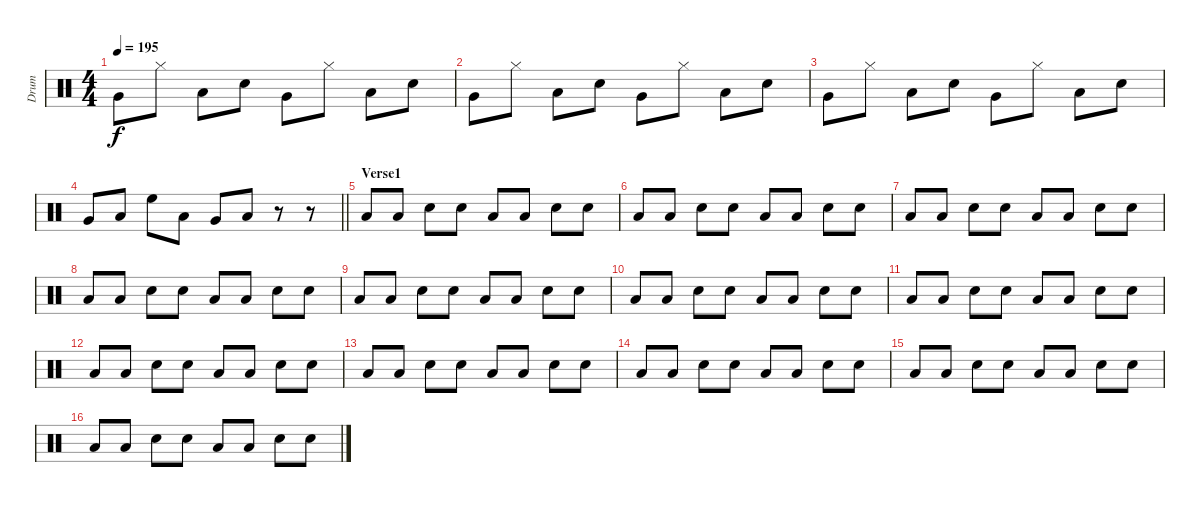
\track ("Drum" "Drum") {instrument percussion}
\staff {score}
\articulation defaults
\ts (4 4)
\tempo 195
\clef neutral
\ks c "Very Low Tom (hit)".8{dy f} "Hi-Hat (closed)".8 "Low Floor Tom (hit)".8 "Electric Snare (hit)".8 "Very Low Tom (hit)".8 "Hi-Hat (closed)".8 "Low Floor Tom (hit)".8 "Electric Snare (hit)".8
|
"Very Low Tom (hit)".8 "Hi-Hat (closed)".8 "Low Floor Tom (hit)".8 "Electric Snare (hit)".8 "Very Low Tom (hit)".8 "Hi-Hat (closed)".8 "Low Floor Tom (hit)".8 "Electric Snare (hit)".8 |
"Very Low Tom (hit)".8 "Hi-Hat (closed)".8 "Low Floor Tom (hit)".8 "Electric Snare (hit)".8 "Very Low Tom (hit)".8 "Hi-Hat (closed)".8 "Low Floor Tom (hit)".8 "Electric Snare (hit)".8 |
\barLineRight lightlight "Very Low Tom (hit)".8 "Low Floor Tom (hit)".8 "High Floor Tom (hit)".8 "Low Floor Tom (hit)".8 "Very Low Tom (hit)".8 "Low Floor Tom (hit)".8
r.8 r.8 |
\section ("" "Verse1")
"Low Floor Tom (hit)".8 "Low Floor Tom (hit)".8 "Electric Snare (hit)".8 "Electric Snare (hit)".8 "Low Floor Tom (hit)".8 "Low Floor Tom (hit)".8 "Electric Snare (hit)".8 "Electric Snare (hit)".8 |
"Low Floor Tom (hit)".8 "Low Floor Tom (hit)".8 "Electric Snare (hit)".8 "Electric Snare (hit)".8 "Low Floor Tom (hit)".8 "Low Floor Tom (hit)".8 "Electric Snare (hit)".8 "Electric Snare (hit)".8 |
"Low Floor Tom (hit)".8 "Low Floor Tom (hit)".8 "Electric Snare (hit)".8 "Electric Snare (hit)".8 "Low Floor Tom (hit)".8 "Low Floor Tom (hit)".8 "Electric Snare (hit)".8 "Electric Snare (hit)".8 |
"Low Floor Tom (hit)".8 "Low Floor Tom (hit)".8 "Electric Snare (hit)".8 "Electric Snare (hit)".8 "Low Floor Tom (hit)".8 "Low Floor Tom (hit)".8 "Electric Snare (hit)".8 "Electric Snare (hit)".8 |
"Low Floor Tom (hit)".8 "Low Floor Tom (hit)".8 "Electric Snare (hit)".8 "Electric Snare (hit)".8 "Low Floor Tom (hit)".8 "Low Floor Tom (hit)".8 "Electric Snare (hit)".8 "Electric Snare (hit)".8 |
"Low Floor Tom (hit)".8 "Low Floor Tom (hit)".8 "Electric Snare (hit)".8 "Electric Snare (hit)".8 "Low Floor Tom (hit)".8 "Low Floor Tom (hit)".8 "Electric Snare (hit)".8 "Electric Snare (hit)".8 |
"Low Floor Tom (hit)".8 "Low Floor Tom (hit)".8 "Electric Snare (hit)".8 "Electric Snare (hit)".8 "Low Floor Tom (hit)".8 "Low Floor Tom (hit)".8 "Electric Snare (hit)".8 "Electric Snare (hit)".8 |
"Low Floor Tom (hit)".8 "Low Floor Tom (hit)".8 "Electric Snare (hit)".8 "Electric Snare (hit)".8 "Low Floor Tom (hit)".8 "Low Floor Tom (hit)".8 "Electric Snare (hit)".8 "Electric Snare (hit)".8 |
"Low Floor Tom (hit)".8 "Low Floor Tom (hit)".8 "Electric Snare (hit)".8 "Electric Snare (hit)".8 "Low Floor Tom (hit)".8 "Low Floor Tom (hit)".8 "Electric Snare (hit)".8 "Electric Snare (hit)".8 |
"Low Floor Tom (hit)".8 "Low Floor Tom (hit)".8 "Electric Snare (hit)".8 "Electric Snare (hit)".8 "Low Floor Tom (hit)".8 "Low Floor Tom (hit)".8 "Electric Snare (hit)".8 "Electric Snare (hit)".8 |
"Low Floor Tom (hit)".8 "Low Floor Tom (hit)".8 "Electric Snare (hit)".8 "Electric Snare (hit)".8 "Low Floor Tom (hit)".8 "Low Floor Tom (hit)".8 "Electric Snare (hit)".8 "Electric Snare (hit)".8 |
"Low Floor Tom (hit)".8 "Low Floor Tom (hit)".8 "Electric Snare (hit)".8 "Electric Snare (hit)".8 "Low Floor Tom (hit)".8 "Low Floor Tom (hit)".8 "Electric Snare (hit)".8 "Electric Snare (hit)".8
